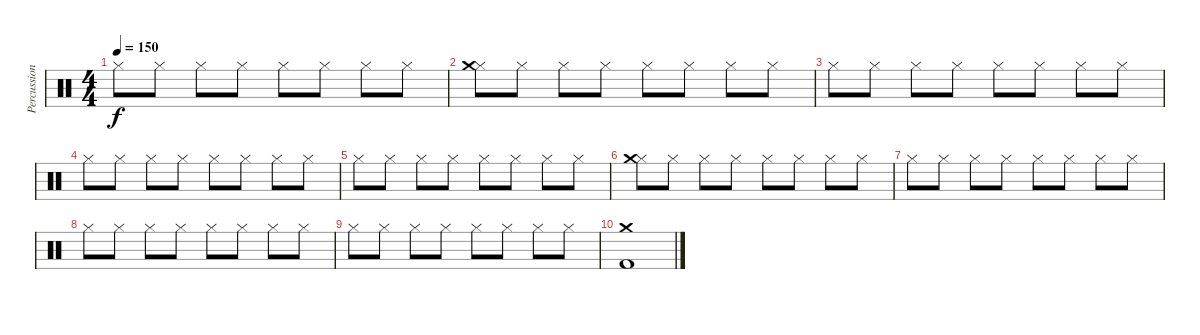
\track ("Percussion" "Percussion") {instrument percussion}
\staff {score}
\articulation defaults
\ts (4 4)
\tempo 150
\clef neutral
\ks c "Hi-Hat (closed)".8{dy f} "Hi-Hat (closed)".8 "Hi-Hat (closed)".8 "Hi-Hat (closed)".8 "Hi-Hat (closed)".8 "Hi-Hat (closed)".8 "Hi-Hat (closed)".8 "Hi-Hat (closed)".8
|
("Hi-Hat (closed)" "Crash medium (hit)").8 "Hi-Hat (closed)".8 "Hi-Hat (closed)".8 "Hi-Hat (closed)".8 "Hi-Hat (closed)".8 "Hi-Hat (closed)".8 "Hi-Hat (closed)".8 "Hi-Hat (closed)".8 |
"Hi-Hat (closed)".8 "Hi-Hat (closed)".8 "Hi-Hat (closed)".8 "Hi-Hat (closed)".8 "Hi-Hat (closed)".8 "Hi-Hat (closed)".8 "Hi-Hat (closed)".8 "Hi-Hat (closed)".8 |
"Hi-Hat (closed)".8 "Hi-Hat (closed)".8 "Hi-Hat (closed)".8 "Hi-Hat (closed)".8 "Hi-Hat (closed)".8 "Hi-Hat (closed)".8 "Hi-Hat (closed)".8 "Hi-Hat (closed)".8 |
"Hi-Hat (closed)".8 "Hi-Hat (closed)".8 "Hi-Hat (closed)".8 "Hi-Hat (closed)".8 "Hi-Hat (closed)".8 "Hi-Hat (closed)".8 "Hi-Hat (closed)".8 "Hi-Hat (closed)".8 |
("Hi-Hat (closed)" "Crash medium (hit)").8 "Hi-Hat (closed)".8 "Hi-Hat (closed)".8 "Hi-Hat (closed)".8 "Hi-Hat (closed)".8 "Hi-Hat (closed)".8 "Hi-Hat (closed)".8 "Hi-Hat (closed)".8 |
"Hi-Hat (closed)".8 "Hi-Hat (closed)".8 "Hi-Hat (closed)".8 "Hi-Hat (closed)".8 "Hi-Hat (closed)".8 "Hi-Hat (closed)".8 "Hi-Hat (closed)".8 "Hi-Hat (closed)".8 |
"Hi-Hat (closed)".8 "Hi-Hat (closed)".8 "Hi-Hat (closed)".8 "Hi-Hat (closed)".8 "Hi-Hat (closed)".8 "Hi-Hat (closed)".8 "Hi-Hat (closed)".8 "Hi-Hat (closed)".8 |
"Hi-Hat (closed)".8 "Hi-Hat (closed)".8 "Hi-Hat (closed)".8 "Hi-Hat (closed)".8 "Hi-Hat (closed)".8 "Hi-Hat (closed)".8 "Hi-Hat (closed)".8 "Hi-Hat (closed)".8 |
("Kick (hit) 2" "Crash medium (hit)").1
